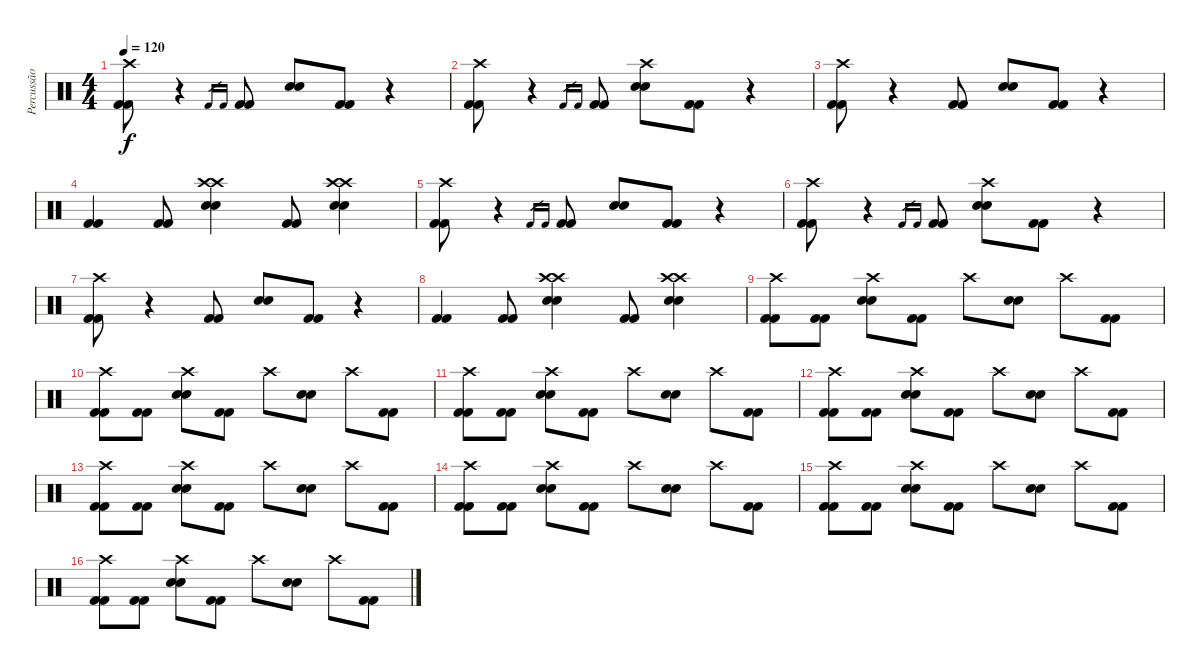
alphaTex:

\track ("Percussão" "Percussão") {instrument percussion}
\staff {score}
\articulation defaults
\ts (4 4)
\tempo 120
\clef neutral
\ks c
("Crash high (hit)" "Kick (hit) 2" "Kick (hit) 2").8{dy f} r.4 "Kick (hit) 2".16{gr} "Kick (hit) 2".16{gr} ("Kick (hit) 2" "Kick (hit) 2").8 ("Snare (hit) 2" "Snare (hit) 2").8 ("Kick (hit) 2" "Kick (hit) 2").8 r.4 |
("Crash high (hit)" "Kick (hit) 2" "Kick (hit) 2").8 r.4 "Kick (hit) 2".16{gr} "Kick (hit) 2".16{gr} ("Kick (hit) 2" "Kick (hit) 2").8 ("Crash high (hit)" "Snare (hit) 2" "Snare (hit) 2").8 ("Kick (hit) 2" "Kick (hit) 2").8 r.4 |
("Crash high (hit)" "Kick (hit) 2" "Kick (hit) 2").8 r.4 ("Kick (hit) 2" "Kick (hit) 2").8 ("Snare (hit) 2" "Snare (hit) 2").8 ("Kick (hit) 2" "Kick (hit) 2").8 r.4 |
("Kick (hit) 2" "Kick (hit) 2").4 ("Kick (hit) 2" "Kick (hit) 2").8 ("Crash high (hit)" "Crash high (hit)" "Snare (hit) 2" "Snare (hit) 2").4 ("Kick (hit) 2" "Kick (hit) 2").8 ("Crash high (hit)" "Crash high (hit)" "Snare (hit) 2" "Snare (hit) 2").4 |
("Crash high (hit)" "Kick (hit) 2" "Kick (hit) 2").8 r.4 "Kick (hit) 2".16{gr} "Kick (hit) 2".16{gr} ("Kick (hit) 2" "Kick (hit) 2").8 ("Snare (hit) 2" "Snare (hit) 2").8 ("Kick (hit) 2" "Kick (hit) 2").8 r.4 |
("Crash high (hit)" "Kick (hit) 2" "Kick (hit) 2").8 r.4 "Kick (hit) 2".16{gr} "Kick (hit) 2".16{gr} ("Kick (hit) 2" "Kick (hit) 2").8 ("Crash high (hit)" "Snare (hit) 2" "Snare (hit) 2").8 ("Kick (hit) 2" "Kick (hit) 2").8 r.4 |
("Crash high (hit)" "Kick (hit) 2" "Kick (hit) 2").8 r.4 ("Kick (hit) 2" "Kick (hit) 2").8 ("Snare (hit) 2" "Snare (hit) 2").8 ("Kick (hit) 2" "Kick (hit) 2").8 r.4 |
("Kick (hit) 2" "Kick (hit) 2").4 ("Kick (hit) 2" "Kick (hit) 2").8 ("Crash high (hit)" "Crash high (hit)" "Snare (hit) 2" "Snare (hit) 2").4 ("Kick (hit) 2" "Kick (hit) 2").8 ("Crash high (hit)" "Crash high (hit)" "Snare (hit) 2" "Snare (hit) 2").4 |
("Crash high (hit)" "Kick (hit) 2" "Kick (hit) 2").8 ("Kick (hit) 2" "Kick (hit) 2").8 ("Crash high (hit)" "Snare (hit) 2" "Snare (hit) 2").8 ("Kick (hit) 2" "Kick (hit) 2").8 "Crash high (hit)".8 ("Snare (hit) 2" "Snare (hit) 2").8 "Crash high (hit)".8 ("Kick (hit) 2" "Kick (hit) 2").8 |
("Crash high (hit)" "Kick (hit) 2" "Kick (hit) 2").8 ("Kick (hit) 2" "Kick (hit) 2").8 ("Crash high (hit)" "Snare (hit) 2" "Snare (hit) 2").8 ("Kick (hit) 2" "Kick (hit) 2").8 "Crash high (hit)".8 ("Snare (hit) 2" "Snare (hit) 2").8 "Crash high (hit)".8 ("Kick (hit) 2" "Kick (hit) 2").8 |
("Crash high (hit)" "Kick (hit) 2" "Kick (hit) 2").8 ("Kick (hit) 2" "Kick (hit) 2").8 ("Crash high (hit)" "Snare (hit) 2" "Snare (hit) 2").8 ("Kick (hit) 2" "Kick (hit) 2").8 "Crash high (hit)".8 ("Snare (hit) 2" "Snare (hit) 2").8 "Crash high (hit)".8 ("Kick (hit) 2" "Kick (hit) 2").8 |
("Crash high (hit)" "Kick (hit) 2" "Kick (hit) 2").8 ("Kick (hit) 2" "Kick (hit) 2").8 ("Crash high (hit)" "Snare (hit) 2" "Snare (hit) 2").8 ("Kick (hit) 2" "Kick (hit) 2").8 "Crash high (hit)".8 ("Snare (hit) 2" "Snare (hit) 2").8 "Crash high (hit)".8 ("Kick (hit) 2" "Kick (hit) 2").8 |
("Crash high (hit)" "Kick (hit) 2" "Kick (hit) 2").8 ("Kick (hit) 2" "Kick (hit) 2").8 ("Crash high (hit)" "Snare (hit) 2" "Snare (hit) 2").8 ("Kick (hit) 2" "Kick (hit) 2").8 "Crash high (hit)".8 ("Snare (hit) 2" "Snare (hit) 2").8 "Crash high (hit)".8 ("Kick (hit) 2" "Kick (hit) 2").8 |
("Crash high (hit)" "Kick (hit) 2" "Kick (hit) 2").8 ("Kick (hit) 2" "Kick (hit) 2").8 ("Crash high (hit)" "Snare (hit) 2" "Snare (hit) 2").8 ("Kick (hit) 2" "Kick (hit) 2").8 "Crash high (hit)".8 ("Snare (hit) 2" "Snare (hit) 2").8 "Crash high (hit)".8 ("Kick (hit) 2" "Kick (hit) 2").8 |
("Crash high (hit)" "Kick (hit) 2" "Kick (hit) 2").8 ("Kick (hit) 2" "Kick (hit) 2").8 ("Crash high (hit)" "Snare (hit) 2" "Snare (hit) 2").8 ("Kick (hit) 2" "Kick (hit) 2").8 "Crash high (hit)".8 ("Snare (hit) 2" "Snare (hit) 2").8 "Crash high (hit)".8 ("Kick (hit) 2" "Kick (hit) 2").8 |
("Crash high (hit)" "Kick (hit) 2" "Kick (hit) 2").8 ("Kick (hit) 2" "Kick (hit) 2").8 ("Crash high (hit)" "Snare (hit) 2" "Snare (hit) 2").8 ("Kick (hit) 2" "Kick (hit) 2").8 "Crash high (hit)".8 ("Snare (hit) 2" "Snare (hit) 2").8 "Crash high (hit)".8 ("Kick (hit) 2" "Kick (hit) 2").8
